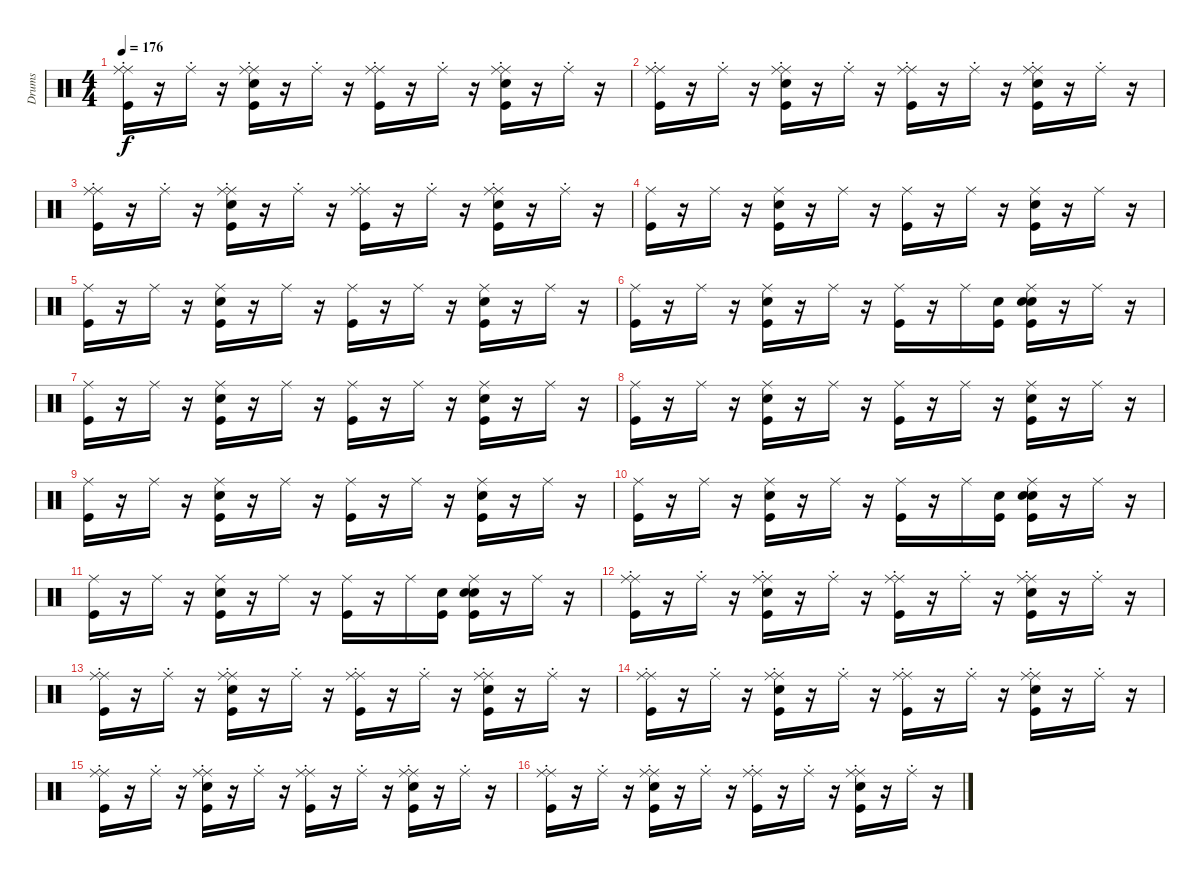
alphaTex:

\track ("Drums" "Drums") {instrument percussion}
\staff {score}
\articulation defaults
\ts (4 4)
\tempo 176
\clef neutral
\ks c
("Ride (middle)" "Kick (hit)" "Ride (choke)").16{dy f} r.16 "Ride (choke)".16 r.16 ("Ride (middle)" "Kick (hit)" "Snare (hit) 2" "Ride (choke)").16 r.16 "Ride (choke)".16 r.16 ("Ride (middle)" "Kick (hit)" "Ride (choke)").16 r.16 "Ride (choke)".16 r.16 ("Kick (hit)" "Snare (hit) 2" "Ride (choke)" "Ride (middle)").16 r.16 "Ride (choke)".16 r.16 |
("Ride (middle)" "Kick (hit)" "Ride (choke)").16 r.16 "Ride (choke)".16 r.16 ("Ride (middle)" "Kick (hit)" "Snare (hit) 2" "Ride (choke)").16 r.16 "Ride (choke)".16 r.16 ("Ride (middle)" "Kick (hit)" "Ride (choke)").16 r.16 "Ride (choke)".16 r.16 ("Ride (middle)" "Kick (hit)" "Snare (hit) 2" "Ride (choke)").16 r.16 "Ride (choke)".16 r.16 |
("Ride (middle)" "Kick (hit)" "Ride (choke)").16 r.16 "Ride (choke)".16 r.16 ("Ride (middle)" "Kick (hit)" "Snare (hit) 2" "Ride (choke)").16 r.16 "Ride (choke)".16 r.16 ("Ride (middle)" "Kick (hit)" "Ride (choke)").16 r.16 "Ride (choke)".16 r.16 ("Kick (hit)" "Snare (hit) 2" "Ride (choke)" "Ride (middle)").16 r.16 "Ride (choke)".16 r.16 |
("Kick (hit)" "Ride (middle)").16 r.16 "Ride (middle)".16 r.16 ("Snare (hit) 2" "Kick (hit)" "Ride (middle)").16 r.16 "Ride (middle)".16 r.16 ("Kick (hit)" "Ride (middle)").16 r.16 "Ride (middle)".16 r.16 ("Snare (hit) 2" "Kick (hit)" "Ride (middle)").16 r.16 "Ride (middle)".16 r.16 |
("Kick (hit)" "Ride (middle)").16 r.16 "Ride (middle)".16 r.16 ("Kick (hit)" "Snare (hit) 2" "Ride (middle)").16 r.16 "Ride (middle)".16 r.16 ("Kick (hit)" "Ride (middle)").16 r.16 "Ride (middle)".16 r.16 ("Kick (hit)" "Snare (hit) 2" "Ride (middle)").16 r.16 "Ride (middle)".16 r.16 |
("Kick (hit)" "Ride (middle)").16 r.16 "Ride (middle)".16 r.16 ("Kick (hit)" "Snare (hit) 2" "Ride (middle)").16 r.16 "Ride (middle)".16 r.16 ("Kick (hit)" "Ride (middle)").16 r.16 "Ride (middle)".16 ("Snare (hit)" "Kick (hit)").16 ("Snare (hit)" "Kick (hit)" "Snare (hit) 2" "Ride (middle)").16 r.16 "Ride (middle)".16 r.16 |
("Kick (hit)" "Ride (middle)").16 r.16 "Ride (middle)".16 r.16 ("Snare (hit) 2" "Kick (hit)" "Ride (middle)").16 r.16 "Ride (middle)".16 r.16 ("Kick (hit)" "Ride (middle)").16 r.16 "Ride (middle)".16 r.16 ("Snare (hit) 2" "Kick (hit)" "Ride (middle)").16 r.16 "Ride (middle)".16 r.16 |
("Kick (hit)" "Ride (middle)").16 r.16 "Ride (middle)".16 r.16 ("Snare (hit) 2" "Kick (hit)" "Ride (middle)").16 r.16 "Ride (middle)".16 r.16 ("Kick (hit)" "Ride (middle)").16 r.16 "Ride (middle)".16 r.16 ("Snare (hit) 2" "Kick (hit)" "Ride (middle)").16 r.16 "Ride (middle)".16 r.16 |
("Kick (hit)" "Ride (middle)").16 r.16 "Ride (middle)".16 r.16 ("Kick (hit)" "Snare (hit) 2" "Ride (middle)").16 r.16 "Ride (middle)".16 r.16 ("Kick (hit)" "Ride (middle)").16 r.16 "Ride (middle)".16 r.16 ("Kick (hit)" "Snare (hit) 2" "Ride (middle)").16 r.16 "Ride (middle)".16 r.16 |
("Kick (hit)" "Ride (middle)").16 r.16 "Ride (middle)".16 r.16 ("Kick (hit)" "Snare (hit) 2" "Ride (middle)").16 r.16 "Ride (middle)".16 r.16 ("Kick (hit)" "Ride (middle)").16 r.16 "Ride (middle)".16 ("Snare (hit)" "Kick (hit)").16 ("Snare (hit)" "Kick (hit)" "Snare (hit) 2" "Ride (middle)").16 r.16 "Ride (middle)".16 r.16 |
("Kick (hit)" "Ride (middle)").16 r.16 "Ride (middle)".16 r.16 ("Kick (hit)" "Snare (hit) 2" "Ride (middle)").16 r.16 "Ride (middle)".16 r.16 ("Kick (hit)" "Ride (middle)").16 r.16 "Ride (middle)".16 ("Snare (hit)" "Kick (hit)").16 ("Snare (hit)" "Kick (hit)" "Snare (hit) 2" "Ride (middle)").16 r.16 "Ride (middle)".16 r.16 |
("Ride (middle)" "Kick (hit)" "Ride (choke)").16 r.16 "Ride (choke)".16 r.16 ("Ride (middle)" "Kick (hit)" "Snare (hit) 2" "Ride (choke)").16 r.16 "Ride (choke)".16 r.16 ("Ride (middle)" "Kick (hit)" "Ride (choke)").16 r.16 "Ride (choke)".16 r.16 ("Ride (middle)" "Kick (hit)" "Snare (hit) 2" "Ride (choke)").16 r.16 "Ride (choke)".16 r.16 |
("Ride (middle)" "Kick (hit)" "Ride (choke)").16 r.16 "Ride (choke)".16 r.16 ("Ride (middle)" "Kick (hit)" "Snare (hit) 2" "Ride (choke)").16 r.16 "Ride (choke)".16 r.16 ("Ride (middle)" "Kick (hit)" "Ride (choke)").16 r.16 "Ride (choke)".16 r.16 ("Kick (hit)" "Snare (hit) 2" "Ride (choke)" "Ride (middle)").16 r.16 "Ride (choke)".16 r.16 |
("Ride (middle)" "Kick (hit)" "Ride (choke)").16 r.16 "Ride (choke)".16 r.16 ("Ride (middle)" "Kick (hit)" "Snare (hit) 2" "Ride (choke)").16 r.16 "Ride (choke)".16 r.16 ("Ride (middle)" "Kick (hit)" "Ride (choke)").16 r.16 "Ride (choke)".16 r.16 ("Ride (middle)" "Kick (hit)" "Snare (hit) 2" "Ride (choke)").16 r.16 "Ride (choke)".16 r.16 |
("Ride (middle)" "Kick (hit)" "Ride (choke)").16 r.16 "Ride (choke)".16 r.16 ("Ride (middle)" "Kick (hit)" "Snare (hit) 2" "Ride (choke)").16 r.16 "Ride (choke)".16 r.16 ("Ride (middle)" "Kick (hit)" "Ride (choke)").16 r.16 "Ride (choke)".16 r.16 ("Kick (hit)" "Snare (hit) 2" "Ride (choke)" "Ride (middle)").16 r.16 "Ride (choke)".16 r.16 |
("Ride (middle)" "Kick (hit)" "Ride (choke)").16 r.16 "Ride (choke)".16 r.16 ("Ride (middle)" "Kick (hit)" "Snare (hit) 2" "Ride (choke)").16 r.16 "Ride (choke)".16 r.16 ("Ride (middle)" "Kick (hit)" "Ride (choke)").16 r.16 "Ride (choke)".16 r.16 ("Ride (middle)" "Kick (hit)" "Snare (hit) 2" "Ride (choke)").16 r.16 "Ride (choke)".16 r.16
